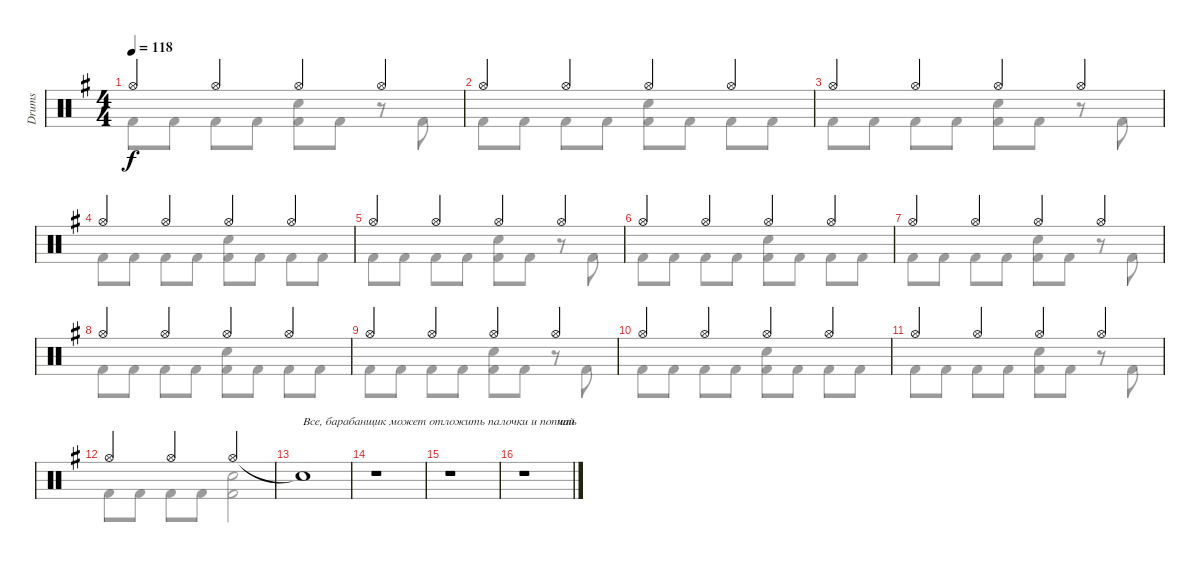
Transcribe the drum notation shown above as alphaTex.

\track ("Drums" "Drums") {instrument percussion}
\staff {score}
\articulation defaults
\voice
\ts (4 4)
\tempo 118
\clef neutral
\ks eminor "Hi-Hat (open)".4{dy f} "Hi-Hat (open)".4 "Hi-Hat (open)".4 "Hi-Hat (open)".4
|
"Hi-Hat (open)".4 "Hi-Hat (open)".4 "Hi-Hat (open)".4 "Hi-Hat (open)".4 |
"Hi-Hat (open)".4 "Hi-Hat (open)".4 "Hi-Hat (open)".4 "Hi-Hat (open)".4 |
"Hi-Hat (open)".4 "Hi-Hat (open)".4 "Hi-Hat (open)".4 "Hi-Hat (open)".4 |
"Hi-Hat (open)".4 "Hi-Hat (open)".4 "Hi-Hat (open)".4 "Hi-Hat (open)".4 |
"Hi-Hat (open)".4 "Hi-Hat (open)".4 "Hi-Hat (open)".4 "Hi-Hat (open)".4 |
"Hi-Hat (open)".4 "Hi-Hat (open)".4 "Hi-Hat (open)".4 "Hi-Hat (open)".4 |
"Hi-Hat (open)".4 "Hi-Hat (open)".4 "Hi-Hat (open)".4 "Hi-Hat (open)".4 |
"Hi-Hat (open)".4 "Hi-Hat (open)".4 "Hi-Hat (open)".4 "Hi-Hat (open)".4 |
"Hi-Hat (open)".4 "Hi-Hat (open)".4 "Hi-Hat (open)".4 "Hi-Hat (open)".4 |
"Hi-Hat (open)".4 "Hi-Hat (open)".4 "Hi-Hat (open)".4 "Hi-Hat (open)".4 |
"Hi-Hat (open)".4 "Hi-Hat (open)".4 "Hi-Hat (open)".2 |
"Snare (hit)"{t}.1{txt "Все, барабанщик может отложить палочки и попить"} |
r.1 |
r.1 |
r.1{txt "           чай"}
\voice
\clef neutral
\ottava regular
\simile none
\ks eminor "Kick (hit) 2".8{dy f} "Kick (hit) 2".8 "Kick (hit) 2".8 "Kick (hit) 2".8
("Kick (hit) 2" "Electric Snare (hit)").8 "Kick (hit) 2".8 r.8 "Kick (hit) 2".8 |
"Kick (hit) 2".8 "Kick (hit) 2".8 "Kick (hit) 2".8 "Kick (hit) 2".8 ("Kick (hit) 2" "Electric Snare (hit)").8 "Kick (hit) 2".8 "Kick (hit) 2".8 "Kick (hit) 2".8 |
"Kick (hit) 2".8 "Kick (hit) 2".8 "Kick (hit) 2".8 "Kick (hit) 2".8 ("Kick (hit) 2" "Electric Snare (hit)").8 "Kick (hit) 2".8 r.8 "Kick (hit) 2".8 |
"Kick (hit) 2".8 "Kick (hit) 2".8 "Kick (hit) 2".8 "Kick (hit) 2".8 ("Kick (hit) 2" "Electric Snare (hit)").8 "Kick (hit) 2".8 "Kick (hit) 2".8 "Kick (hit) 2".8 |
"Kick (hit) 2".8 "Kick (hit) 2".8 "Kick (hit) 2".8 "Kick (hit) 2".8 ("Kick (hit) 2" "Electric Snare (hit)").8 "Kick (hit) 2".8 r.8 "Kick (hit) 2".8 |
"Kick (hit) 2".8 "Kick (hit) 2".8 "Kick (hit) 2".8 "Kick (hit) 2".8 ("Kick (hit) 2" "Electric Snare (hit)").8 "Kick (hit) 2".8 "Kick (hit) 2".8 "Kick (hit) 2".8 |
"Kick (hit) 2".8 "Kick (hit) 2".8 "Kick (hit) 2".8 "Kick (hit) 2".8 ("Kick (hit) 2" "Electric Snare (hit)").8 "Kick (hit) 2".8 r.8 "Kick (hit) 2".8 |
"Kick (hit) 2".8 "Kick (hit) 2".8 "Kick (hit) 2".8 "Kick (hit) 2".8 ("Kick (hit) 2" "Electric Snare (hit)").8 "Kick (hit) 2".8 "Kick (hit) 2".8 "Kick (hit) 2".8 |
"Kick (hit) 2".8 "Kick (hit) 2".8 "Kick (hit) 2".8 "Kick (hit) 2".8 ("Kick (hit) 2" "Electric Snare (hit)").8 "Kick (hit) 2".8 r.8 "Kick (hit) 2".8 |
"Kick (hit) 2".8 "Kick (hit) 2".8 "Kick (hit) 2".8 "Kick (hit) 2".8 ("Kick (hit) 2" "Electric Snare (hit)").8 "Kick (hit) 2".8 "Kick (hit) 2".8 "Kick (hit) 2".8 |
"Kick (hit) 2".8 "Kick (hit) 2".8 "Kick (hit) 2".8 "Kick (hit) 2".8 ("Kick (hit) 2" "Electric Snare (hit)").8 "Kick (hit) 2".8 r.8 "Kick (hit) 2".8 |
"Kick (hit) 2".8 "Kick (hit) 2".8 "Kick (hit) 2".8 "Kick (hit) 2".8 ("Kick (hit) 2" "Electric Snare (hit)").2 |
|
|
|
